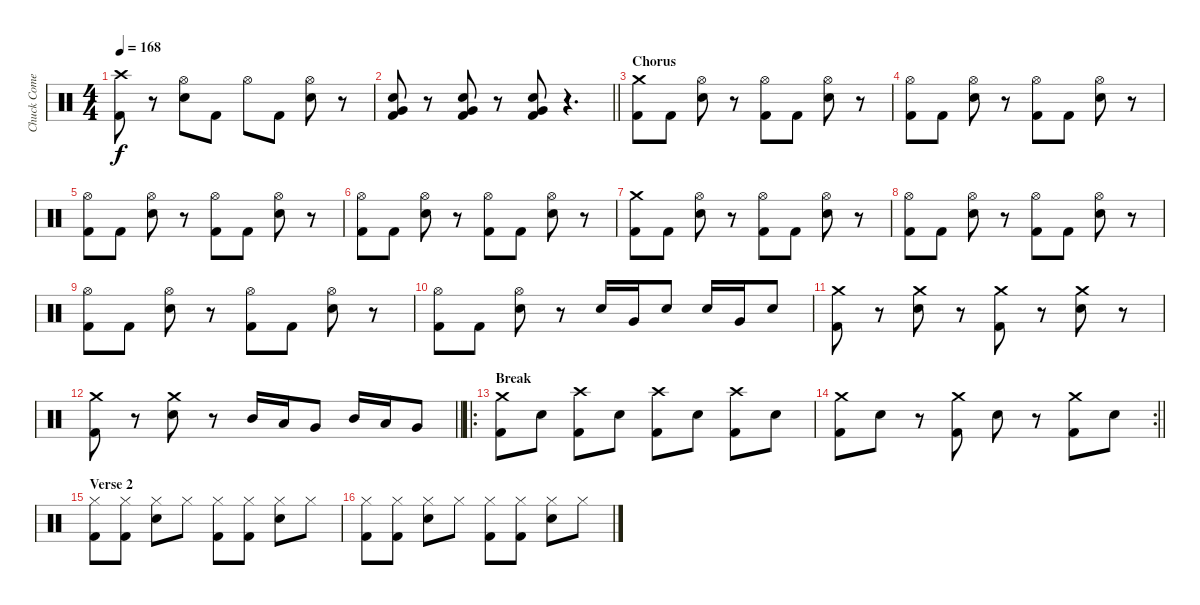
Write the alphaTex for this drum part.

\track ("Chuck Comeau" "Chuck Come") {instrument percussion}
\staff {score}
\articulation defaults
\ts (4 4)
\tempo 168
\clef neutral
\ks c
("Crash high (hit)" "Kick (hit) 2").8{dy f} r.8 ("Hi-Hat (open)" "Snare (hit) 2").8 "Kick (hit) 2".8 "Hi-Hat (open)".8 "Kick (hit) 2".8 ("Hi-Hat (open)" "Snare (hit) 2").8 r.8 |
\barLineRight lightlight
("Very Low Tom (hit)" "Snare (hit) 2" "Kick (hit) 2").8 r.8 ("Very Low Tom (hit)" "Snare (hit) 2" "Kick (hit) 2").8 r.8 ("Very Low Tom (hit)" "Snare (hit) 2" "Kick (hit) 2").8 r.4{d} |
\section ("" "Chorus")
("Crash medium (hit)" "Kick (hit) 2").8 "Kick (hit) 2".8 ("Hi-Hat (open)" "Snare (hit) 2").8 r.8 ("Hi-Hat (open)" "Kick (hit) 2").8 "Kick (hit) 2".8 ("Hi-Hat (open)" "Snare (hit) 2").8 r.8 |
("Hi-Hat (open)" "Kick (hit) 2").8 "Kick (hit) 2".8 ("Hi-Hat (open)" "Snare (hit) 2").8 r.8 ("Hi-Hat (open)" "Kick (hit) 2").8 "Kick (hit) 2".8 ("Hi-Hat (open)" "Snare (hit) 2").8 r.8 |
("Hi-Hat (open)" "Kick (hit) 2").8 "Kick (hit) 2".8 ("Hi-Hat (open)" "Snare (hit) 2").8 r.8 ("Hi-Hat (open)" "Kick (hit) 2").8 "Kick (hit) 2".8 ("Hi-Hat (open)" "Snare (hit) 2").8 r.8 |
("Hi-Hat (open)" "Kick (hit) 2").8 "Kick (hit) 2".8 ("Hi-Hat (open)" "Snare (hit) 2").8 r.8 ("Hi-Hat (open)" "Kick (hit) 2").8 "Kick (hit) 2".8 ("Hi-Hat (open)" "Snare (hit) 2").8 r.8 |
("Crash medium (hit)" "Kick (hit) 2").8 "Kick (hit) 2".8 ("Hi-Hat (open)" "Snare (hit) 2").8 r.8 ("Hi-Hat (open)" "Kick (hit) 2").8 "Kick (hit) 2".8 ("Hi-Hat (open)" "Snare (hit) 2").8 r.8 |
("Hi-Hat (open)" "Kick (hit) 2").8 "Kick (hit) 2".8 ("Hi-Hat (open)" "Snare (hit) 2").8 r.8 ("Hi-Hat (open)" "Kick (hit) 2").8 "Kick (hit) 2".8 ("Hi-Hat (open)" "Snare (hit) 2").8 r.8 |
("Hi-Hat (open)" "Kick (hit) 2").8 "Kick (hit) 2".8 ("Hi-Hat (open)" "Snare (hit) 2").8 r.8 ("Hi-Hat (open)" "Kick (hit) 2").8 "Kick (hit) 2".8 ("Hi-Hat (open)" "Snare (hit) 2").8 r.8 |
("Hi-Hat (open)" "Kick (hit) 2").8 "Kick (hit) 2".8 ("Hi-Hat (open)" "Snare (hit) 2").8 r.8 "Snare (hit) 2".16 "Very Low Tom (hit)".16 "Snare (hit) 2".8 "Snare (hit) 2".16 "Very Low Tom (hit)".16 "Snare (hit) 2".8 |
("Crash medium (hit)" "Kick (hit) 2").8 r.8 ("Crash medium (hit)" "Snare (hit) 2").8 r.8 ("Crash medium (hit)" "Kick (hit) 2").8 r.8 ("Crash medium (hit)" "Snare (hit) 2").8 r.8 |
\barLineRight lightlight
("Crash medium (hit)" "Kick (hit) 2").8 r.8 ("Crash medium (hit)" "Snare (hit) 2").8 r.8 "Mid Tom (hit)".16 "Low Tom (hit)".16 "Very Low Tom (hit)".8 "Mid Tom (hit)".16 "Low Tom (hit)".16 "Very Low Tom (hit)".8 |
\ro
\section ("" "Break")
("Crash medium (hit)" "Kick (hit) 2").8 "Snare (hit) 2".8 ("Crash high (hit)" "Kick (hit) 2").8 "Snare (hit) 2".8 ("Crash high (hit)" "Kick (hit) 2").8 "Snare (hit) 2".8 ("Crash high (hit)" "Kick (hit) 2").8 "Snare (hit) 2".8 |
\rc 2
\barLineRight lightlight
("Crash medium (hit)" "Kick (hit) 2").8 "Snare (hit) 2".8 r.8 ("Crash medium (hit)" "Kick (hit) 2").8 "Snare (hit) 2".8 r.8 ("Crash medium (hit)" "Kick (hit) 2").8 "Snare (hit) 2".8 |
\section ("" "Verse 2")
("Hi-Hat (closed)" "Kick (hit) 2").8 ("Hi-Hat (closed)" "Kick (hit) 2").8 ("Hi-Hat (closed)" "Snare (hit) 2").8 "Hi-Hat (closed)".8 ("Hi-Hat (closed)" "Kick (hit) 2").8 ("Hi-Hat (closed)" "Kick (hit) 2").8 ("Hi-Hat (closed)" "Snare (hit) 2").8 "Hi-Hat (closed)".8 |
("Hi-Hat (closed)" "Kick (hit) 2").8 ("Hi-Hat (closed)" "Kick (hit) 2").8 ("Hi-Hat (closed)" "Snare (hit) 2").8 "Hi-Hat (closed)".8 ("Hi-Hat (closed)" "Kick (hit) 2").8 ("Hi-Hat (closed)" "Kick (hit) 2").8 ("Hi-Hat (closed)" "Snare (hit) 2").8 "Hi-Hat (closed)".8
